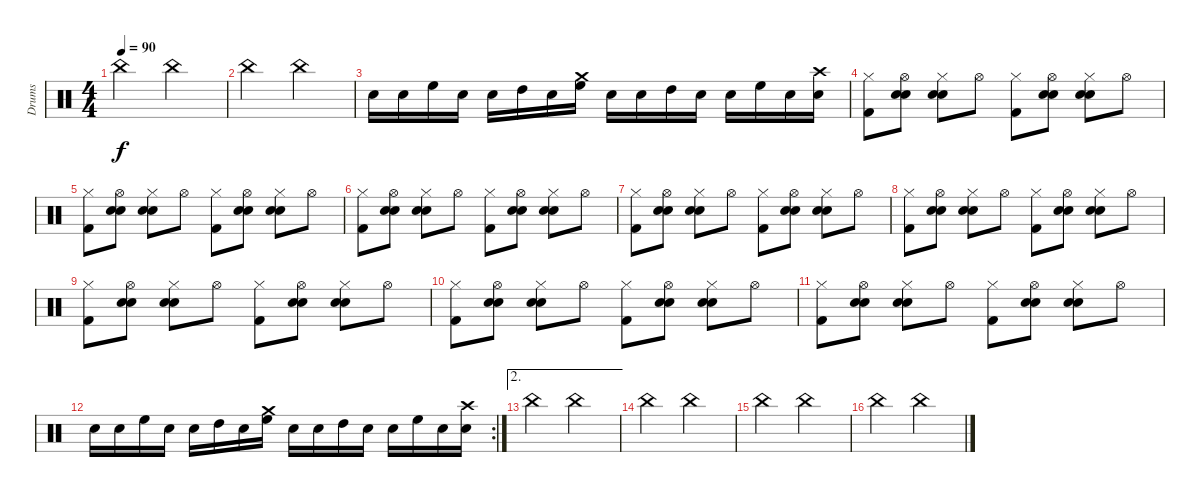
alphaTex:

\track ("Drums" "Drums") {instrument percussion}
\staff {score}
\articulation defaults
\ts (4 4)
\tempo 90
\clef neutral
\ks c "China (hit)".2{dy f} "China (hit)".2
|
"China (hit)".2 "China (hit)".2 |
"Snare (hit) 2".16 "Snare (hit) 2".16 "High Floor Tom (hit)".16 "Snare (hit) 2".16 "Snare (hit) 2".16 "High Tom (hit)".16 "Snare (hit) 2".16 ("Crash medium (hit)" "High Floor Tom (hit)").16 "Snare (hit) 2".16 "Snare (hit) 2".16 "High Tom (hit)".16 "Snare (hit) 2".16 "Snare (hit) 2".16 "High Floor Tom (hit)".16 "Snare (hit) 2".16 ("Crash high (hit)" "Snare (hit) 2").16 |
("Hi-Hat (closed)" "Kick (hit) 2").8 ("Hi-Hat (open)" "Snare (hit) 2" "Snare (hit) 2").8 ("Hi-Hat (closed)" "Snare (hit) 2" "Snare (hit) 2").8 "Hi-Hat (open)".8 ("Hi-Hat (closed)" "Kick (hit) 2").8 ("Hi-Hat (open)" "Snare (hit) 2" "Snare (hit) 2").8 ("Hi-Hat (closed)" "Snare (hit) 2" "Snare (hit) 2").8 "Hi-Hat (open)".8 |
("Hi-Hat (closed)" "Kick (hit) 2").8 ("Hi-Hat (open)" "Snare (hit) 2" "Snare (hit) 2").8 ("Hi-Hat (closed)" "Snare (hit) 2" "Snare (hit) 2").8 "Hi-Hat (open)".8 ("Hi-Hat (closed)" "Kick (hit) 2").8 ("Hi-Hat (open)" "Snare (hit) 2" "Snare (hit) 2").8 ("Hi-Hat (closed)" "Snare (hit) 2" "Snare (hit) 2").8 "Hi-Hat (open)".8 |
("Hi-Hat (closed)" "Kick (hit) 2").8 ("Hi-Hat (open)" "Snare (hit) 2" "Snare (hit) 2").8 ("Hi-Hat (closed)" "Snare (hit) 2" "Snare (hit) 2").8 "Hi-Hat (open)".8 ("Hi-Hat (closed)" "Kick (hit) 2").8 ("Hi-Hat (open)" "Snare (hit) 2" "Snare (hit) 2").8 ("Hi-Hat (closed)" "Snare (hit) 2" "Snare (hit) 2").8 "Hi-Hat (open)".8 |
("Hi-Hat (closed)" "Kick (hit) 2").8 ("Hi-Hat (open)" "Snare (hit) 2" "Snare (hit) 2").8 ("Hi-Hat (closed)" "Snare (hit) 2" "Snare (hit) 2").8 "Hi-Hat (open)".8 ("Hi-Hat (closed)" "Kick (hit) 2").8 ("Hi-Hat (open)" "Snare (hit) 2" "Snare (hit) 2").8 ("Hi-Hat (closed)" "Snare (hit) 2" "Snare (hit) 2").8 "Hi-Hat (open)".8 |
("Hi-Hat (closed)" "Kick (hit) 2").8 ("Hi-Hat (open)" "Snare (hit) 2" "Snare (hit) 2").8 ("Hi-Hat (closed)" "Snare (hit) 2" "Snare (hit) 2").8 "Hi-Hat (open)".8 ("Hi-Hat (closed)" "Kick (hit) 2").8 ("Hi-Hat (open)" "Snare (hit) 2" "Snare (hit) 2").8 ("Hi-Hat (closed)" "Snare (hit) 2" "Snare (hit) 2").8 "Hi-Hat (open)".8 |
("Hi-Hat (closed)" "Kick (hit) 2").8 ("Hi-Hat (open)" "Snare (hit) 2" "Snare (hit) 2").8 ("Hi-Hat (closed)" "Snare (hit) 2" "Snare (hit) 2").8 "Hi-Hat (open)".8 ("Hi-Hat (closed)" "Kick (hit) 2").8 ("Hi-Hat (open)" "Snare (hit) 2" "Snare (hit) 2").8 ("Hi-Hat (closed)" "Snare (hit) 2" "Snare (hit) 2").8 "Hi-Hat (open)".8 |
("Hi-Hat (closed)" "Kick (hit) 2").8 ("Hi-Hat (open)" "Snare (hit) 2" "Snare (hit) 2").8 ("Hi-Hat (closed)" "Snare (hit) 2" "Snare (hit) 2").8 "Hi-Hat (open)".8 ("Hi-Hat (closed)" "Kick (hit) 2").8 ("Hi-Hat (open)" "Snare (hit) 2" "Snare (hit) 2").8 ("Hi-Hat (closed)" "Snare (hit) 2" "Snare (hit) 2").8 "Hi-Hat (open)".8 |
("Hi-Hat (closed)" "Kick (hit) 2").8 ("Hi-Hat (open)" "Snare (hit) 2" "Snare (hit) 2").8 ("Hi-Hat (closed)" "Snare (hit) 2" "Snare (hit) 2").8 "Hi-Hat (open)".8 ("Hi-Hat (closed)" "Kick (hit) 2").8 ("Hi-Hat (open)" "Snare (hit) 2" "Snare (hit) 2").8 ("Hi-Hat (closed)" "Snare (hit) 2" "Snare (hit) 2").8 "Hi-Hat (open)".8 |
\rc 2 "Snare (hit) 2".16 "Snare (hit) 2".16 "High Floor Tom (hit)".16 "Snare (hit) 2".16 "Snare (hit) 2".16 "High Tom (hit)".16 "Snare (hit) 2".16
("Crash medium (hit)" "High Floor Tom (hit)").16 "Snare (hit) 2".16 "Snare (hit) 2".16 "High Tom (hit)".16 "Snare (hit) 2".16 "Snare (hit) 2".16 "High Floor Tom (hit)".16 "Snare (hit) 2".16 ("Crash high (hit)" "Snare (hit) 2").16 |
\ae 2 "China (hit)".2 "China (hit)".2
|
"China (hit)".2 "China (hit)".2 |
"China (hit)".2 "China (hit)".2 |
"China (hit)".2 "China (hit)".2
